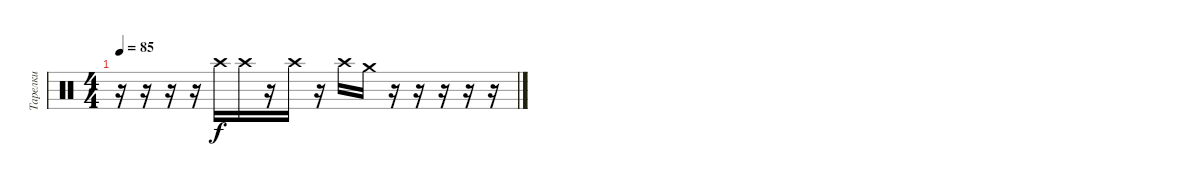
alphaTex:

\track ("Тарелки" "Тарелки") {instrument percussion}
\staff {score}
\articulation defaults
\ts (4 4)
\tempo 85
\clef neutral
\ks c
r.16{dy f} r.16 r.16 r.16 "Crash high (hit)".16 "Crash high (hit)".16 r.16 "Crash high (hit)".16 r.16 "Crash high (hit)".16 "Crash medium (hit)".16 r.16 r.16 r.16 r.16 r.16
